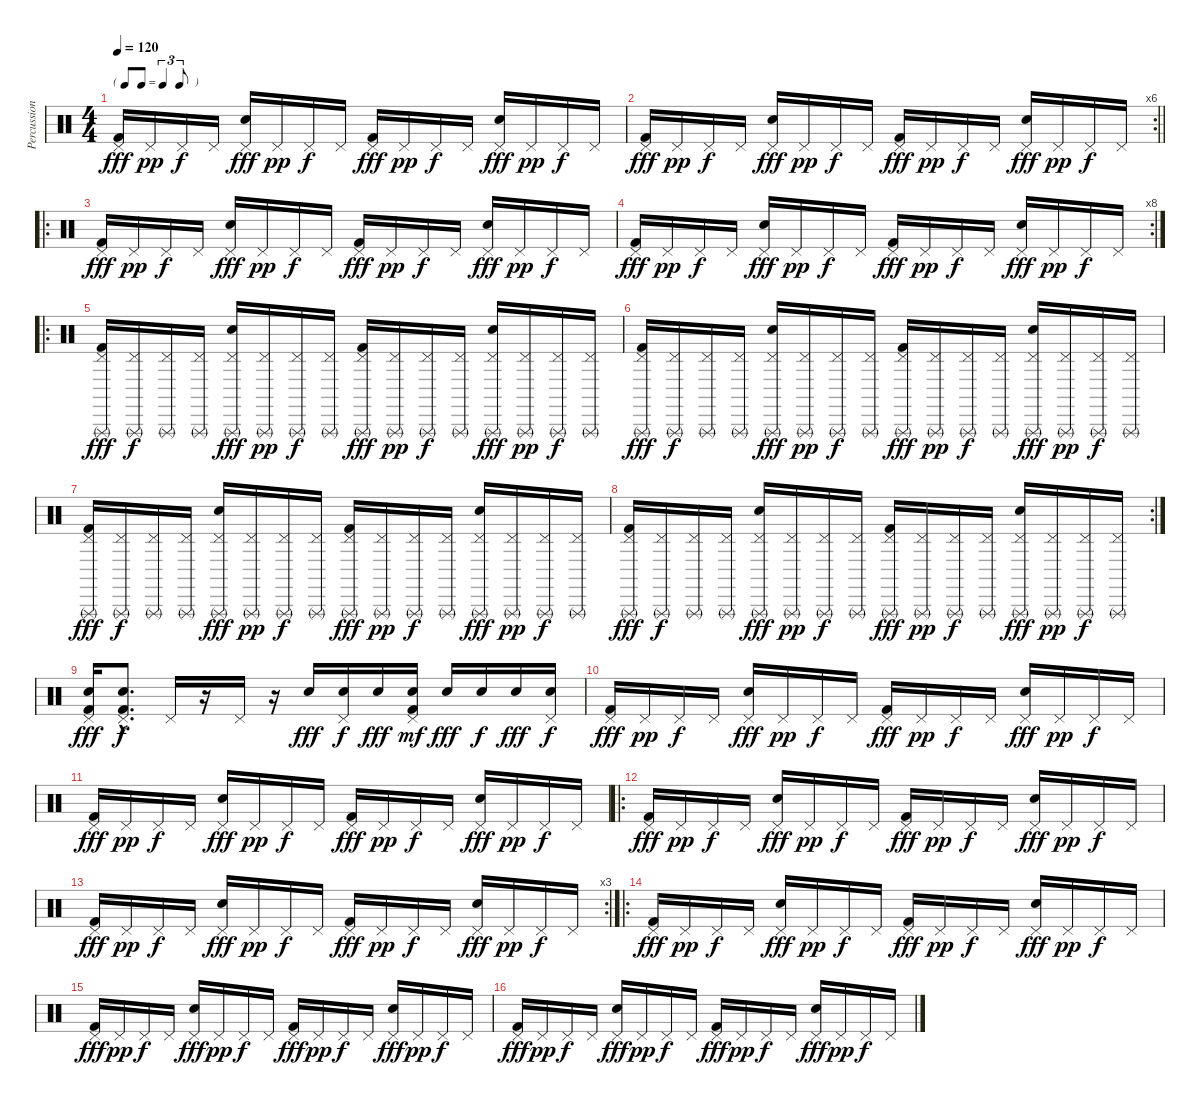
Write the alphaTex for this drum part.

\track ("Percussions" "Percussion") {instrument percussion}
\staff {score}
\articulation defaults
\ts (4 4)
\tf triplet8th
\tempo 120
\clef neutral
\ks c
("Pedal Hi-Hat (hit)" "Kick (hit) 2").16{dy fff} "Pedal Hi-Hat (hit)".16{dy pp} "Pedal Hi-Hat (hit)".16{dy f} "Pedal Hi-Hat (hit)".16 ("Pedal Hi-Hat (hit)" "Hand Clap (hit)").16{dy fff} "Pedal Hi-Hat (hit)".16{dy pp} "Pedal Hi-Hat (hit)".16{dy f} "Pedal Hi-Hat (hit)".16 ("Pedal Hi-Hat (hit)" "Kick (hit) 2").16{dy fff} "Pedal Hi-Hat (hit)".16{dy pp} "Pedal Hi-Hat (hit)".16{dy f} "Pedal Hi-Hat (hit)".16 ("Pedal Hi-Hat (hit)" "Hand Clap (hit)").16{dy fff} "Pedal Hi-Hat (hit)".16{dy pp} "Pedal Hi-Hat (hit)".16{dy f} "Pedal Hi-Hat (hit)".16 |
\rc 6
\barLineRight lightlight
("Pedal Hi-Hat (hit)" "Kick (hit) 2").16{dy fff} "Pedal Hi-Hat (hit)".16{dy pp} "Pedal Hi-Hat (hit)".16{dy f} "Pedal Hi-Hat (hit)".16 ("Pedal Hi-Hat (hit)" "Hand Clap (hit)").16{dy fff} "Pedal Hi-Hat (hit)".16{dy pp} "Pedal Hi-Hat (hit)".16{dy f} "Pedal Hi-Hat (hit)".16 ("Pedal Hi-Hat (hit)" "Kick (hit) 2").16{dy fff} "Pedal Hi-Hat (hit)".16{dy pp} "Pedal Hi-Hat (hit)".16{dy f} "Pedal Hi-Hat (hit)".16 ("Pedal Hi-Hat (hit)" "Hand Clap (hit)").16{dy fff} "Pedal Hi-Hat (hit)".16{dy pp} "Pedal Hi-Hat (hit)".16{dy f} "Pedal Hi-Hat (hit)".16 |
\ro
("Pedal Hi-Hat (hit)" "Kick (hit) 2").16{dy fff} "Pedal Hi-Hat (hit)".16{dy pp} "Pedal Hi-Hat (hit)".16{dy f} "Pedal Hi-Hat (hit)".16 ("Pedal Hi-Hat (hit)" "Hand Clap (hit)").16{dy fff} "Pedal Hi-Hat (hit)".16{dy pp} "Pedal Hi-Hat (hit)".16{dy f} "Pedal Hi-Hat (hit)".16 ("Pedal Hi-Hat (hit)" "Kick (hit) 2").16{dy fff} "Pedal Hi-Hat (hit)".16{dy pp} "Pedal Hi-Hat (hit)".16{dy f} "Pedal Hi-Hat (hit)".16 ("Pedal Hi-Hat (hit)" "Hand Clap (hit)").16{dy fff} "Pedal Hi-Hat (hit)".16{dy pp} "Pedal Hi-Hat (hit)".16{dy f} "Pedal Hi-Hat (hit)".16 |
\rc 8
("Pedal Hi-Hat (hit)" "Kick (hit) 2").16{dy fff} "Pedal Hi-Hat (hit)".16{dy pp} "Pedal Hi-Hat (hit)".16{dy f} "Pedal Hi-Hat (hit)".16 ("Pedal Hi-Hat (hit)" "Hand Clap (hit)").16{dy fff} "Pedal Hi-Hat (hit)".16{dy pp} "Pedal Hi-Hat (hit)".16{dy f} "Pedal Hi-Hat (hit)".16 ("Pedal Hi-Hat (hit)" "Kick (hit) 2").16{dy fff} "Pedal Hi-Hat (hit)".16{dy pp} "Pedal Hi-Hat (hit)".16{dy f} "Pedal Hi-Hat (hit)".16 ("Pedal Hi-Hat (hit)" "Hand Clap (hit)").16{dy fff} "Pedal Hi-Hat (hit)".16{dy pp} "Pedal Hi-Hat (hit)".16{dy f} "Pedal Hi-Hat (hit)".16 |
\ro
("Pedal Hi-Hat (hit)" "Kick (hit) 2" "Triangle (rnute)").16{dy fff} ("Pedal Hi-Hat (hit)" "Triangle (rnute)").16{dy f} ("Pedal Hi-Hat (hit)" "Triangle (rnute)").16 ("Pedal Hi-Hat (hit)" "Triangle (rnute)").16 ("Pedal Hi-Hat (hit)" "Hand Clap (hit)" "Triangle (rnute)").16{dy fff} ("Pedal Hi-Hat (hit)" "Triangle (rnute)").16{dy pp} ("Pedal Hi-Hat (hit)" "Triangle (rnute)").16{dy f} ("Pedal Hi-Hat (hit)" "Triangle (rnute)").16 ("Pedal Hi-Hat (hit)" "Kick (hit) 2" "Triangle (rnute)").16{dy fff} ("Pedal Hi-Hat (hit)" "Triangle (rnute)").16{dy pp} ("Pedal Hi-Hat (hit)" "Triangle (rnute)").16{dy f} ("Pedal Hi-Hat (hit)" "Triangle (rnute)").16 ("Pedal Hi-Hat (hit)" "Hand Clap (hit)" "Triangle (rnute)").16{dy fff} ("Pedal Hi-Hat (hit)" "Triangle (rnute)").16{dy pp} ("Pedal Hi-Hat (hit)" "Triangle (rnute)").16{dy f} ("Pedal Hi-Hat (hit)" "Triangle (rnute)").16 |
("Pedal Hi-Hat (hit)" "Kick (hit) 2" "Triangle (rnute)").16{dy fff} ("Pedal Hi-Hat (hit)" "Triangle (rnute)").16{dy f} ("Pedal Hi-Hat (hit)" "Triangle (rnute)").16 ("Pedal Hi-Hat (hit)" "Triangle (rnute)").16 ("Pedal Hi-Hat (hit)" "Hand Clap (hit)" "Triangle (rnute)").16{dy fff} ("Pedal Hi-Hat (hit)" "Triangle (rnute)").16{dy pp} ("Pedal Hi-Hat (hit)" "Triangle (rnute)").16{dy f} ("Pedal Hi-Hat (hit)" "Triangle (rnute)").16 ("Pedal Hi-Hat (hit)" "Kick (hit) 2" "Triangle (rnute)").16{dy fff} ("Pedal Hi-Hat (hit)" "Triangle (rnute)").16{dy pp} ("Pedal Hi-Hat (hit)" "Triangle (rnute)").16{dy f} ("Pedal Hi-Hat (hit)" "Triangle (rnute)").16 ("Pedal Hi-Hat (hit)" "Hand Clap (hit)" "Triangle (rnute)").16{dy fff} ("Pedal Hi-Hat (hit)" "Triangle (rnute)").16{dy pp} ("Pedal Hi-Hat (hit)" "Triangle (rnute)").16{dy f} ("Pedal Hi-Hat (hit)" "Triangle (rnute)").16 |
("Pedal Hi-Hat (hit)" "Kick (hit) 2" "Triangle (rnute)").16{dy fff} ("Pedal Hi-Hat (hit)" "Triangle (rnute)").16{dy f} ("Pedal Hi-Hat (hit)" "Triangle (rnute)").16 ("Pedal Hi-Hat (hit)" "Triangle (rnute)").16 ("Pedal Hi-Hat (hit)" "Hand Clap (hit)" "Triangle (rnute)").16{dy fff} ("Pedal Hi-Hat (hit)" "Triangle (rnute)").16{dy pp} ("Pedal Hi-Hat (hit)" "Triangle (rnute)").16{dy f} ("Pedal Hi-Hat (hit)" "Triangle (rnute)").16 ("Pedal Hi-Hat (hit)" "Kick (hit) 2" "Triangle (rnute)").16{dy fff} ("Pedal Hi-Hat (hit)" "Triangle (rnute)").16{dy pp} ("Pedal Hi-Hat (hit)" "Triangle (rnute)").16{dy f} ("Pedal Hi-Hat (hit)" "Triangle (rnute)").16 ("Pedal Hi-Hat (hit)" "Hand Clap (hit)" "Triangle (rnute)").16{dy fff} ("Pedal Hi-Hat (hit)" "Triangle (rnute)").16{dy pp} ("Pedal Hi-Hat (hit)" "Triangle (rnute)").16{dy f} ("Pedal Hi-Hat (hit)" "Triangle (rnute)").16 |
\rc 2
("Pedal Hi-Hat (hit)" "Kick (hit) 2" "Triangle (rnute)").16{dy fff} ("Pedal Hi-Hat (hit)" "Triangle (rnute)").16{dy f} ("Pedal Hi-Hat (hit)" "Triangle (rnute)").16 ("Pedal Hi-Hat (hit)" "Triangle (rnute)").16 ("Pedal Hi-Hat (hit)" "Hand Clap (hit)" "Triangle (rnute)").16{dy fff} ("Pedal Hi-Hat (hit)" "Triangle (rnute)").16{dy pp} ("Pedal Hi-Hat (hit)" "Triangle (rnute)").16{dy f} ("Pedal Hi-Hat (hit)" "Triangle (rnute)").16 ("Pedal Hi-Hat (hit)" "Kick (hit) 2" "Triangle (rnute)").16{dy fff} ("Pedal Hi-Hat (hit)" "Triangle (rnute)").16{dy pp} ("Pedal Hi-Hat (hit)" "Triangle (rnute)").16{dy f} ("Pedal Hi-Hat (hit)" "Triangle (rnute)").16 ("Pedal Hi-Hat (hit)" "Hand Clap (hit)" "Triangle (rnute)").16{dy fff} ("Pedal Hi-Hat (hit)" "Triangle (rnute)").16{dy pp} ("Pedal Hi-Hat (hit)" "Triangle (rnute)").16{dy f} ("Pedal Hi-Hat (hit)" "Triangle (rnute)").16 |
("Snare (hit) 2" "Pedal Hi-Hat (hit)" "Kick (hit) 2").16{dy fff} ("Snare (hit) 2"{hac} "Pedal Hi-Hat (hit)"{hac} "Kick (hit) 2"{hac}).8{d dy f} "Pedal Hi-Hat (hit)".16 r.16 "Pedal Hi-Hat (hit)".16 r.16 "Snare (hit) 2".16{dy fff} ("Snare (hit) 2" "Pedal Hi-Hat (hit)").16{dy f} "Snare (hit) 2".16{dy fff} ("Snare (hit) 2" "Pedal Hi-Hat (hit)" "Kick (hit) 2").16{dy mf} "Snare (hit) 2".16{dy fff} "Snare (hit) 2".16{dy f} "Snare (hit) 2".16{dy fff} ("Snare (hit) 2" "Pedal Hi-Hat (hit)").16{dy f} |
("Pedal Hi-Hat (hit)" "Kick (hit) 2").16{dy fff} "Pedal Hi-Hat (hit)".16{dy pp} "Pedal Hi-Hat (hit)".16{dy f} "Pedal Hi-Hat (hit)".16 ("Pedal Hi-Hat (hit)" "Hand Clap (hit)").16{dy fff} "Pedal Hi-Hat (hit)".16{dy pp} "Pedal Hi-Hat (hit)".16{dy f} "Pedal Hi-Hat (hit)".16 ("Pedal Hi-Hat (hit)" "Kick (hit) 2").16{dy fff} "Pedal Hi-Hat (hit)".16{dy pp} "Pedal Hi-Hat (hit)".16{dy f} "Pedal Hi-Hat (hit)".16 ("Pedal Hi-Hat (hit)" "Hand Clap (hit)").16{dy fff} "Pedal Hi-Hat (hit)".16{dy pp} "Pedal Hi-Hat (hit)".16{dy f} "Pedal Hi-Hat (hit)".16 |
("Pedal Hi-Hat (hit)" "Kick (hit) 2").16{dy fff} "Pedal Hi-Hat (hit)".16{dy pp} "Pedal Hi-Hat (hit)".16{dy f} "Pedal Hi-Hat (hit)".16 ("Pedal Hi-Hat (hit)" "Hand Clap (hit)").16{dy fff} "Pedal Hi-Hat (hit)".16{dy pp} "Pedal Hi-Hat (hit)".16{dy f} "Pedal Hi-Hat (hit)".16 ("Pedal Hi-Hat (hit)" "Kick (hit) 2").16{dy fff} "Pedal Hi-Hat (hit)".16{dy pp} "Pedal Hi-Hat (hit)".16{dy f} "Pedal Hi-Hat (hit)".16 ("Pedal Hi-Hat (hit)" "Hand Clap (hit)").16{dy fff} "Pedal Hi-Hat (hit)".16{dy pp} "Pedal Hi-Hat (hit)".16{dy f} "Pedal Hi-Hat (hit)".16 |
\ro
("Pedal Hi-Hat (hit)" "Kick (hit) 2").16{dy fff} "Pedal Hi-Hat (hit)".16{dy pp} "Pedal Hi-Hat (hit)".16{dy f} "Pedal Hi-Hat (hit)".16 ("Pedal Hi-Hat (hit)" "Hand Clap (hit)").16{dy fff} "Pedal Hi-Hat (hit)".16{dy pp} "Pedal Hi-Hat (hit)".16{dy f} "Pedal Hi-Hat (hit)".16 ("Pedal Hi-Hat (hit)" "Kick (hit) 2").16{dy fff} "Pedal Hi-Hat (hit)".16{dy pp} "Pedal Hi-Hat (hit)".16{dy f} "Pedal Hi-Hat (hit)".16 ("Pedal Hi-Hat (hit)" "Hand Clap (hit)").16{dy fff} "Pedal Hi-Hat (hit)".16{dy pp} "Pedal Hi-Hat (hit)".16{dy f} "Pedal Hi-Hat (hit)".16 |
\rc 3
("Pedal Hi-Hat (hit)" "Kick (hit) 2").16{dy fff} "Pedal Hi-Hat (hit)".16{dy pp} "Pedal Hi-Hat (hit)".16{dy f} "Pedal Hi-Hat (hit)".16 ("Pedal Hi-Hat (hit)" "Hand Clap (hit)").16{dy fff} "Pedal Hi-Hat (hit)".16{dy pp} "Pedal Hi-Hat (hit)".16{dy f} "Pedal Hi-Hat (hit)".16 ("Pedal Hi-Hat (hit)" "Kick (hit) 2").16{dy fff} "Pedal Hi-Hat (hit)".16{dy pp} "Pedal Hi-Hat (hit)".16{dy f} "Pedal Hi-Hat (hit)".16 ("Pedal Hi-Hat (hit)" "Hand Clap (hit)").16{dy fff} "Pedal Hi-Hat (hit)".16{dy pp} "Pedal Hi-Hat (hit)".16{dy f} "Pedal Hi-Hat (hit)".16 |
\ro
("Pedal Hi-Hat (hit)" "Kick (hit) 2").16{dy fff} "Pedal Hi-Hat (hit)".16{dy pp} "Pedal Hi-Hat (hit)".16{dy f} "Pedal Hi-Hat (hit)".16 ("Pedal Hi-Hat (hit)" "Hand Clap (hit)").16{dy fff} "Pedal Hi-Hat (hit)".16{dy pp} "Pedal Hi-Hat (hit)".16{dy f} "Pedal Hi-Hat (hit)".16 ("Pedal Hi-Hat (hit)" "Kick (hit) 2").16{dy fff} "Pedal Hi-Hat (hit)".16{dy pp} "Pedal Hi-Hat (hit)".16{dy f} "Pedal Hi-Hat (hit)".16 ("Pedal Hi-Hat (hit)" "Hand Clap (hit)").16{dy fff} "Pedal Hi-Hat (hit)".16{dy pp} "Pedal Hi-Hat (hit)".16{dy f} "Pedal Hi-Hat (hit)".16 |
("Pedal Hi-Hat (hit)" "Kick (hit) 2").16{dy fff} "Pedal Hi-Hat (hit)".16{dy pp} "Pedal Hi-Hat (hit)".16{dy f} "Pedal Hi-Hat (hit)".16 ("Pedal Hi-Hat (hit)" "Hand Clap (hit)").16{dy fff} "Pedal Hi-Hat (hit)".16{dy pp} "Pedal Hi-Hat (hit)".16{dy f} "Pedal Hi-Hat (hit)".16 ("Pedal Hi-Hat (hit)" "Kick (hit) 2").16{dy fff} "Pedal Hi-Hat (hit)".16{dy pp} "Pedal Hi-Hat (hit)".16{dy f} "Pedal Hi-Hat (hit)".16 ("Pedal Hi-Hat (hit)" "Hand Clap (hit)").16{dy fff} "Pedal Hi-Hat (hit)".16{dy pp} "Pedal Hi-Hat (hit)".16{dy f} "Pedal Hi-Hat (hit)".16 |
("Pedal Hi-Hat (hit)" "Kick (hit) 2").16{dy fff} "Pedal Hi-Hat (hit)".16{dy pp} "Pedal Hi-Hat (hit)".16{dy f} "Pedal Hi-Hat (hit)".16 ("Pedal Hi-Hat (hit)" "Hand Clap (hit)").16{dy fff} "Pedal Hi-Hat (hit)".16{dy pp} "Pedal Hi-Hat (hit)".16{dy f} "Pedal Hi-Hat (hit)".16 ("Pedal Hi-Hat (hit)" "Kick (hit) 2").16{dy fff} "Pedal Hi-Hat (hit)".16{dy pp} "Pedal Hi-Hat (hit)".16{dy f} "Pedal Hi-Hat (hit)".16 ("Pedal Hi-Hat (hit)" "Hand Clap (hit)").16{dy fff} "Pedal Hi-Hat (hit)".16{dy pp} "Pedal Hi-Hat (hit)".16{dy f} "Pedal Hi-Hat (hit)".16
